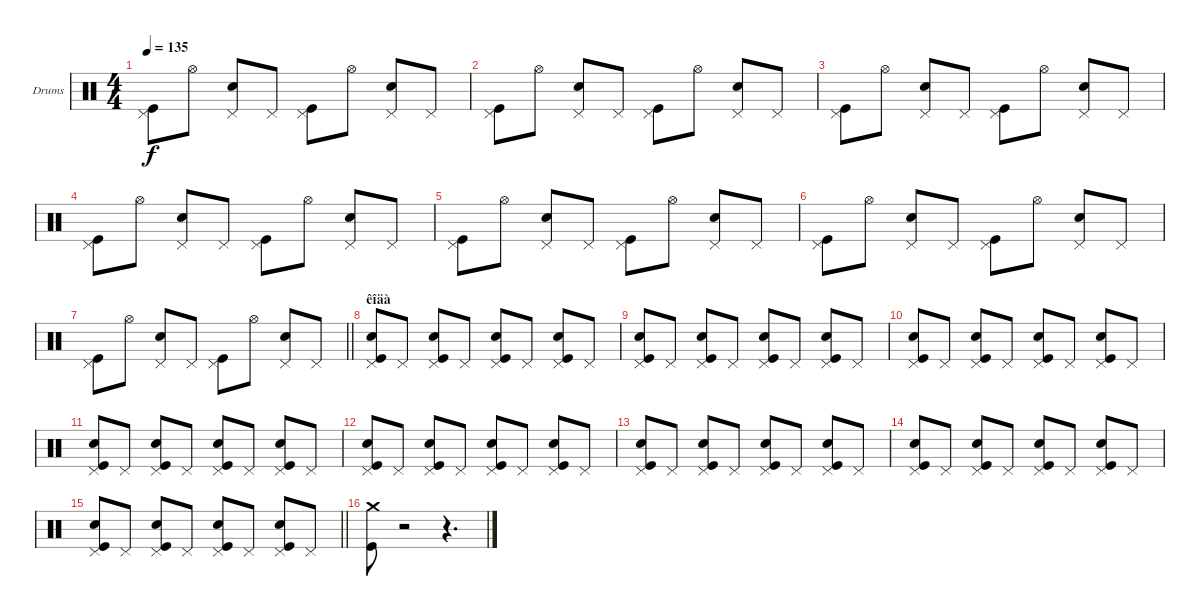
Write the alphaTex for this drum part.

\bracketExtendMode groupsimilarinstruments
\firstSystemTrackNameOrientation horizontal
\otherSystemsTrackNameOrientation horizontal
\track ("Drumkit" "Drums") {instrument percussion}
\staff {score}
\articulation defaults
\ts (4 4)
\tempo 135
\clef neutral
\ks c
("Pedal Hi-Hat (hit)" "Kick (hit)").8{dy f} "Hi-Hat (open)".8 ("Pedal Hi-Hat (hit)" "Snare (hit) 2").8 "Pedal Hi-Hat (hit)".8 ("Pedal Hi-Hat (hit)" "Kick (hit)").8 "Hi-Hat (open)".8 ("Pedal Hi-Hat (hit)" "Snare (hit) 2").8 "Pedal Hi-Hat (hit)".8 |
("Pedal Hi-Hat (hit)" "Kick (hit)").8 "Hi-Hat (open)".8 ("Pedal Hi-Hat (hit)" "Snare (hit) 2").8 "Pedal Hi-Hat (hit)".8 ("Pedal Hi-Hat (hit)" "Kick (hit)").8 "Hi-Hat (open)".8 ("Pedal Hi-Hat (hit)" "Snare (hit) 2").8 "Pedal Hi-Hat (hit)".8 |
("Pedal Hi-Hat (hit)" "Kick (hit)").8 "Hi-Hat (open)".8 ("Pedal Hi-Hat (hit)" "Snare (hit) 2").8 "Pedal Hi-Hat (hit)".8 ("Pedal Hi-Hat (hit)" "Kick (hit)").8 "Hi-Hat (open)".8 ("Pedal Hi-Hat (hit)" "Snare (hit) 2").8 "Pedal Hi-Hat (hit)".8 |
("Pedal Hi-Hat (hit)" "Kick (hit)").8 "Hi-Hat (open)".8 ("Pedal Hi-Hat (hit)" "Snare (hit) 2").8 "Pedal Hi-Hat (hit)".8 ("Pedal Hi-Hat (hit)" "Kick (hit)").8 "Hi-Hat (open)".8 ("Pedal Hi-Hat (hit)" "Snare (hit) 2").8 "Pedal Hi-Hat (hit)".8 |
("Pedal Hi-Hat (hit)" "Kick (hit)").8 "Hi-Hat (open)".8 ("Pedal Hi-Hat (hit)" "Snare (hit) 2").8 "Pedal Hi-Hat (hit)".8 ("Pedal Hi-Hat (hit)" "Kick (hit)").8 "Hi-Hat (open)".8 ("Pedal Hi-Hat (hit)" "Snare (hit) 2").8 "Pedal Hi-Hat (hit)".8 |
("Pedal Hi-Hat (hit)" "Kick (hit)").8 "Hi-Hat (open)".8 ("Pedal Hi-Hat (hit)" "Snare (hit) 2").8 "Pedal Hi-Hat (hit)".8 ("Pedal Hi-Hat (hit)" "Kick (hit)").8 "Hi-Hat (open)".8 ("Pedal Hi-Hat (hit)" "Snare (hit) 2").8 "Pedal Hi-Hat (hit)".8 |
\barLineRight lightlight
("Pedal Hi-Hat (hit)" "Kick (hit)").8 "Hi-Hat (open)".8 ("Pedal Hi-Hat (hit)" "Snare (hit) 2").8 "Pedal Hi-Hat (hit)".8 ("Pedal Hi-Hat (hit)" "Kick (hit)").8 "Hi-Hat (open)".8 ("Pedal Hi-Hat (hit)" "Snare (hit) 2").8 "Pedal Hi-Hat (hit)".8 |
\section ("" "êîäà")
("Pedal Hi-Hat (hit)" "Snare (hit) 2" "Kick (hit)").8 "Pedal Hi-Hat (hit)".8 ("Pedal Hi-Hat (hit)" "Snare (hit) 2" "Kick (hit)").8 "Pedal Hi-Hat (hit)".8 ("Pedal Hi-Hat (hit)" "Snare (hit) 2" "Kick (hit)").8 "Pedal Hi-Hat (hit)".8 ("Pedal Hi-Hat (hit)" "Snare (hit) 2" "Kick (hit)").8 "Pedal Hi-Hat (hit)".8 |
("Pedal Hi-Hat (hit)" "Snare (hit) 2" "Kick (hit)").8 "Pedal Hi-Hat (hit)".8 ("Pedal Hi-Hat (hit)" "Snare (hit) 2" "Kick (hit)").8 "Pedal Hi-Hat (hit)".8 ("Pedal Hi-Hat (hit)" "Snare (hit) 2" "Kick (hit)").8 "Pedal Hi-Hat (hit)".8 ("Pedal Hi-Hat (hit)" "Snare (hit) 2" "Kick (hit)").8 "Pedal Hi-Hat (hit)".8 |
("Pedal Hi-Hat (hit)" "Snare (hit) 2" "Kick (hit)").8 "Pedal Hi-Hat (hit)".8 ("Pedal Hi-Hat (hit)" "Snare (hit) 2" "Kick (hit)").8 "Pedal Hi-Hat (hit)".8 ("Pedal Hi-Hat (hit)" "Snare (hit) 2" "Kick (hit)").8 "Pedal Hi-Hat (hit)".8 ("Pedal Hi-Hat (hit)" "Snare (hit) 2" "Kick (hit)").8 "Pedal Hi-Hat (hit)".8 |
("Pedal Hi-Hat (hit)" "Snare (hit) 2" "Kick (hit)").8 "Pedal Hi-Hat (hit)".8 ("Pedal Hi-Hat (hit)" "Snare (hit) 2" "Kick (hit)").8 "Pedal Hi-Hat (hit)".8 ("Pedal Hi-Hat (hit)" "Snare (hit) 2" "Kick (hit)").8 "Pedal Hi-Hat (hit)".8 ("Pedal Hi-Hat (hit)" "Snare (hit) 2" "Kick (hit)").8 "Pedal Hi-Hat (hit)".8 |
("Pedal Hi-Hat (hit)" "Snare (hit) 2" "Kick (hit)").8 "Pedal Hi-Hat (hit)".8 ("Pedal Hi-Hat (hit)" "Snare (hit) 2" "Kick (hit)").8 "Pedal Hi-Hat (hit)".8 ("Pedal Hi-Hat (hit)" "Snare (hit) 2" "Kick (hit)").8 "Pedal Hi-Hat (hit)".8 ("Pedal Hi-Hat (hit)" "Snare (hit) 2" "Kick (hit)").8 "Pedal Hi-Hat (hit)".8 |
("Pedal Hi-Hat (hit)" "Snare (hit) 2" "Kick (hit)").8 "Pedal Hi-Hat (hit)".8 ("Pedal Hi-Hat (hit)" "Snare (hit) 2" "Kick (hit)").8 "Pedal Hi-Hat (hit)".8 ("Pedal Hi-Hat (hit)" "Snare (hit) 2" "Kick (hit)").8 "Pedal Hi-Hat (hit)".8 ("Pedal Hi-Hat (hit)" "Snare (hit) 2" "Kick (hit)").8 "Pedal Hi-Hat (hit)".8 |
("Pedal Hi-Hat (hit)" "Snare (hit) 2" "Kick (hit)").8 "Pedal Hi-Hat (hit)".8 ("Pedal Hi-Hat (hit)" "Snare (hit) 2" "Kick (hit)").8 "Pedal Hi-Hat (hit)".8 ("Pedal Hi-Hat (hit)" "Snare (hit) 2" "Kick (hit)").8 "Pedal Hi-Hat (hit)".8 ("Pedal Hi-Hat (hit)" "Snare (hit) 2" "Kick (hit)").8 "Pedal Hi-Hat (hit)".8 |
\barLineRight lightlight
("Pedal Hi-Hat (hit)" "Snare (hit) 2" "Kick (hit)").8 "Pedal Hi-Hat (hit)".8 ("Pedal Hi-Hat (hit)" "Snare (hit) 2" "Kick (hit)").8 "Pedal Hi-Hat (hit)".8 ("Pedal Hi-Hat (hit)" "Snare (hit) 2" "Kick (hit)").8 "Pedal Hi-Hat (hit)".8 ("Pedal Hi-Hat (hit)" "Snare (hit) 2" "Kick (hit)").8 "Pedal Hi-Hat (hit)".8 |
("Kick (hit)" "Crash medium (hit)").8 r.2 r.4{d}
